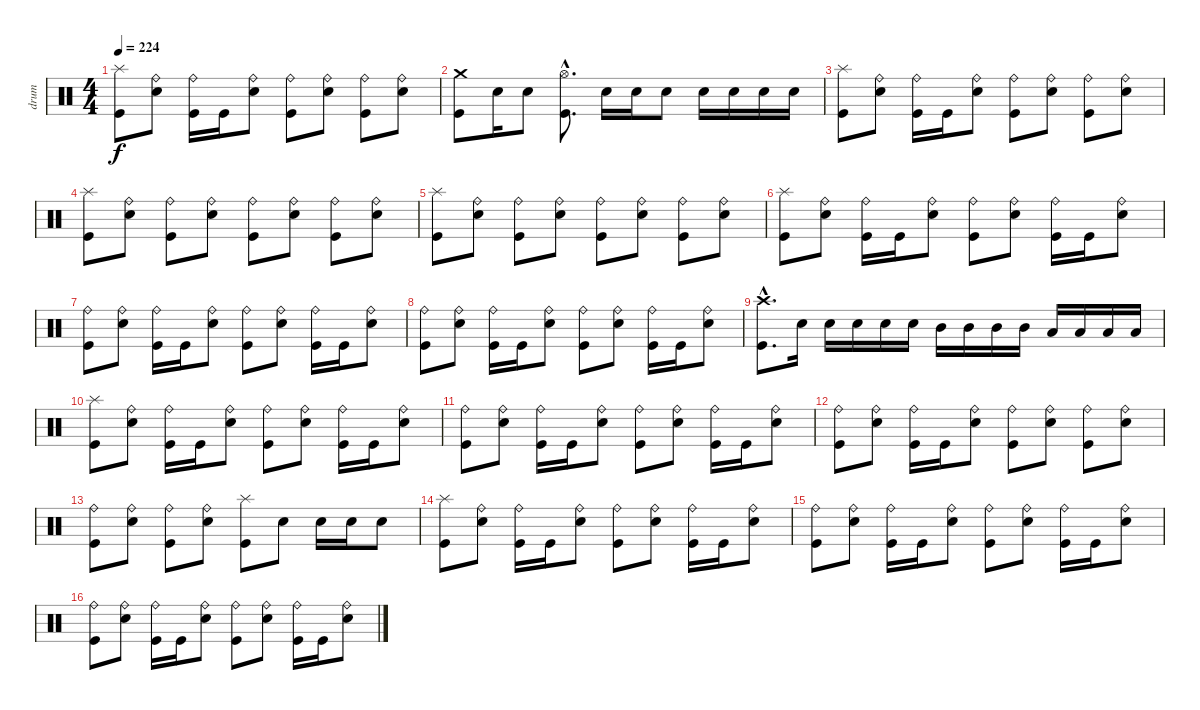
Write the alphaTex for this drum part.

\track ("drum" "drum") {instrument percussion}
\staff {score}
\articulation defaults
\ts (4 4)
\tempo 224
\clef neutral
\ks c
("Kick (hit)" "Splash (hit)").8{dy f} ("Electric Snare (hit)" "Ride (bell)").8 ("Kick (hit)" "Ride (bell)").16 "Kick (hit)".16 ("Electric Snare (hit)" "Ride (bell)").8 ("Kick (hit)" "Ride (bell)").8 ("Electric Snare (hit)" "Ride (bell)").8 ("Kick (hit)" "Ride (bell)").8 ("Electric Snare (hit)" "Ride (bell)").8 |
("Kick (hit)" "Crash medium (hit)").8 "Electric Snare (hit)".16 "Electric Snare (hit)".8 ("Kick (hit)"{hac} "Hi-Hat (open)"{hac}).8{d} "Electric Snare (hit)".16 "Electric Snare (hit)".16 "Electric Snare (hit)".8 "Electric Snare (hit)".16 "Electric Snare (hit)".16 "Electric Snare (hit)".16 "Electric Snare (hit)".16 |
("Kick (hit)" "Splash (hit)").8 ("Electric Snare (hit)" "Ride (bell)").8 ("Kick (hit)" "Ride (bell)").16 "Kick (hit)".16 ("Electric Snare (hit)" "Ride (bell)").8 ("Kick (hit)" "Ride (bell)").8 ("Electric Snare (hit)" "Ride (bell)").8 ("Kick (hit)" "Ride (bell)").8 ("Electric Snare (hit)" "Ride (bell)").8 |
("Kick (hit)" "Splash (hit)").8 ("Electric Snare (hit)" "Ride (bell)").8 ("Kick (hit)" "Ride (bell)").8 ("Electric Snare (hit)" "Ride (bell)").8 ("Kick (hit)" "Ride (bell)").8 ("Electric Snare (hit)" "Ride (bell)").8 ("Kick (hit)" "Ride (bell)").8 ("Electric Snare (hit)" "Ride (bell)").8 |
("Kick (hit)" "Splash (hit)").8 ("Electric Snare (hit)" "Ride (bell)").8 ("Kick (hit)" "Ride (bell)").8 ("Electric Snare (hit)" "Ride (bell)").8 ("Kick (hit)" "Ride (bell)").8 ("Electric Snare (hit)" "Ride (bell)").8 ("Kick (hit)" "Ride (bell)").8 ("Electric Snare (hit)" "Ride (bell)").8 |
("Kick (hit)" "Splash (hit)").8 ("Electric Snare (hit)" "Ride (bell)").8 ("Kick (hit)" "Ride (bell)").16 "Kick (hit)".16 ("Electric Snare (hit)" "Ride (bell)").8 ("Kick (hit)" "Ride (bell)").8 ("Electric Snare (hit)" "Ride (bell)").8 ("Kick (hit)" "Ride (bell)").16 "Kick (hit)".16 ("Electric Snare (hit)" "Ride (bell)").8 |
("Kick (hit)" "Ride (bell)").8 ("Electric Snare (hit)" "Ride (bell)").8 ("Kick (hit)" "Ride (bell)").16 "Kick (hit)".16 ("Electric Snare (hit)" "Ride (bell)").8 ("Kick (hit)" "Ride (bell)").8 ("Electric Snare (hit)" "Ride (bell)").8 ("Kick (hit)" "Ride (bell)").16 "Kick (hit)".16 ("Electric Snare (hit)" "Ride (bell)").8 |
("Kick (hit)" "Ride (bell)").8 ("Electric Snare (hit)" "Ride (bell)").8 ("Kick (hit)" "Ride (bell)").16 "Kick (hit)".16 ("Electric Snare (hit)" "Ride (bell)").8 ("Kick (hit)" "Ride (bell)").8 ("Electric Snare (hit)" "Ride (bell)").8 ("Kick (hit)" "Ride (bell)").16 "Kick (hit)".16 ("Electric Snare (hit)" "Ride (bell)").8 |
("Kick (hit)"{hac} "Crash high (hit)"{hac}).8{d} "Electric Snare (hit)".16 "Electric Snare (hit)".16 "Electric Snare (hit)".16 "Electric Snare (hit)".16 "Electric Snare (hit)".16 "Mid Tom (hit)".16 "Mid Tom (hit)".16 "Mid Tom (hit)".16 "Mid Tom (hit)".16 "Low Tom (hit)".16 "Low Tom (hit)".16 "Low Tom (hit)".16 "Low Tom (hit)".16 |
("Kick (hit)" "Splash (hit)").8 ("Electric Snare (hit)" "Ride (bell)").8 ("Kick (hit)" "Ride (bell)").16 "Kick (hit)".16 ("Electric Snare (hit)" "Ride (bell)").8 ("Kick (hit)" "Ride (bell)").8 ("Electric Snare (hit)" "Ride (bell)").8 ("Kick (hit)" "Ride (bell)").16 "Kick (hit)".16 ("Electric Snare (hit)" "Ride (bell)").8 |
("Kick (hit)" "Ride (bell)").8 ("Electric Snare (hit)" "Ride (bell)").8 ("Kick (hit)" "Ride (bell)").16 "Kick (hit)".16 ("Electric Snare (hit)" "Ride (bell)").8 ("Kick (hit)" "Ride (bell)").8 ("Electric Snare (hit)" "Ride (bell)").8 ("Kick (hit)" "Ride (bell)").16 "Kick (hit)".16 ("Electric Snare (hit)" "Ride (bell)").8 |
("Kick (hit)" "Ride (bell)").8 ("Electric Snare (hit)" "Ride (bell)").8 ("Kick (hit)" "Ride (bell)").16 "Kick (hit)".16 ("Electric Snare (hit)" "Ride (bell)").8 ("Kick (hit)" "Ride (bell)").8 ("Electric Snare (hit)" "Ride (bell)").8 ("Kick (hit)" "Ride (bell)").8 ("Electric Snare (hit)" "Ride (bell)").8 |
("Kick (hit)" "Ride (bell)").8 ("Electric Snare (hit)" "Ride (bell)").8 ("Kick (hit)" "Ride (bell)").8 ("Electric Snare (hit)" "Ride (bell)").8 ("Kick (hit)" "Splash (hit)").8 "Electric Snare (hit)".8 "Electric Snare (hit)".16 "Electric Snare (hit)".16 "Electric Snare (hit)".8 |
("Kick (hit)" "Splash (hit)").8 ("Electric Snare (hit)" "Ride (bell)").8 ("Kick (hit)" "Ride (bell)").16 "Kick (hit)".16 ("Electric Snare (hit)" "Ride (bell)").8 ("Kick (hit)" "Ride (bell)").8 ("Electric Snare (hit)" "Ride (bell)").8 ("Kick (hit)" "Ride (bell)").16 "Kick (hit)".16 ("Electric Snare (hit)" "Ride (bell)").8 |
("Kick (hit)" "Ride (bell)").8 ("Electric Snare (hit)" "Ride (bell)").8 ("Kick (hit)" "Ride (bell)").16 "Kick (hit)".16 ("Electric Snare (hit)" "Ride (bell)").8 ("Kick (hit)" "Ride (bell)").8 ("Electric Snare (hit)" "Ride (bell)").8 ("Kick (hit)" "Ride (bell)").16 "Kick (hit)".16 ("Electric Snare (hit)" "Ride (bell)").8 |
("Kick (hit)" "Ride (bell)").8 ("Electric Snare (hit)" "Ride (bell)").8 ("Kick (hit)" "Ride (bell)").16 "Kick (hit)".16 ("Electric Snare (hit)" "Ride (bell)").8 ("Kick (hit)" "Ride (bell)").8 ("Electric Snare (hit)" "Ride (bell)").8 ("Kick (hit)" "Ride (bell)").16 "Kick (hit)".16 ("Electric Snare (hit)" "Ride (bell)").8
